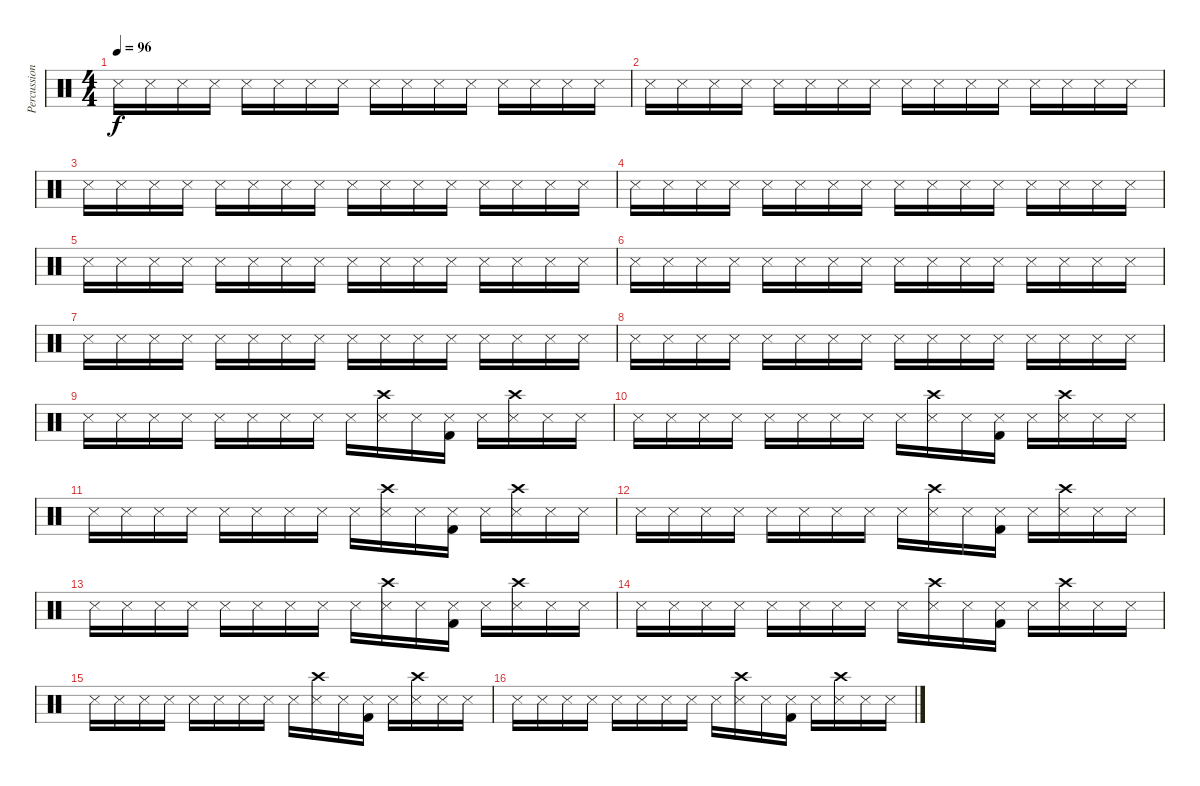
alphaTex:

\track ("Percussion 3 diff" "Percussion") {instrument percussion}
\staff {score}
\articulation defaults
\ts (4 4)
\tempo 96
\clef neutral
\ks c "Snare (side stick) 3".16{dy f} "Snare (side stick) 3".16 "Snare (side stick) 3".16 "Snare (side stick) 3".16 "Snare (side stick) 3".16 "Snare (side stick) 3".16 "Snare (side stick) 3".16 "Snare (side stick) 3".16 "Snare (side stick) 3".16 "Snare (side stick) 3".16 "Snare (side stick) 3".16 "Snare (side stick) 3".16 "Snare (side stick) 3".16 "Snare (side stick) 3".16 "Snare (side stick) 3".16 "Snare (side stick) 3".16
|
"Snare (side stick) 3".16 "Snare (side stick) 3".16 "Snare (side stick) 3".16 "Snare (side stick) 3".16 "Snare (side stick) 3".16 "Snare (side stick) 3".16 "Snare (side stick) 3".16 "Snare (side stick) 3".16 "Snare (side stick) 3".16 "Snare (side stick) 3".16 "Snare (side stick) 3".16 "Snare (side stick) 3".16 "Snare (side stick) 3".16 "Snare (side stick) 3".16 "Snare (side stick) 3".16 "Snare (side stick) 3".16 |
"Snare (side stick) 3".16 "Snare (side stick) 3".16 "Snare (side stick) 3".16 "Snare (side stick) 3".16 "Snare (side stick) 3".16 "Snare (side stick) 3".16 "Snare (side stick) 3".16 "Snare (side stick) 3".16 "Snare (side stick) 3".16 "Snare (side stick) 3".16 "Snare (side stick) 3".16 "Snare (side stick) 3".16 "Snare (side stick) 3".16 "Snare (side stick) 3".16 "Snare (side stick) 3".16 "Snare (side stick) 3".16 |
"Snare (side stick) 3".16 "Snare (side stick) 3".16 "Snare (side stick) 3".16 "Snare (side stick) 3".16 "Snare (side stick) 3".16 "Snare (side stick) 3".16 "Snare (side stick) 3".16 "Snare (side stick) 3".16 "Snare (side stick) 3".16 "Snare (side stick) 3".16 "Snare (side stick) 3".16 "Snare (side stick) 3".16 "Snare (side stick) 3".16 "Snare (side stick) 3".16 "Snare (side stick) 3".16 "Snare (side stick) 3".16 |
"Snare (side stick) 3".16 "Snare (side stick) 3".16 "Snare (side stick) 3".16 "Snare (side stick) 3".16 "Snare (side stick) 3".16 "Snare (side stick) 3".16 "Snare (side stick) 3".16 "Snare (side stick) 3".16 "Snare (side stick) 3".16 "Snare (side stick) 3".16 "Snare (side stick) 3".16 "Snare (side stick) 3".16 "Snare (side stick) 3".16 "Snare (side stick) 3".16 "Snare (side stick) 3".16 "Snare (side stick) 3".16 |
"Snare (side stick) 3".16 "Snare (side stick) 3".16 "Snare (side stick) 3".16 "Snare (side stick) 3".16 "Snare (side stick) 3".16 "Snare (side stick) 3".16 "Snare (side stick) 3".16 "Snare (side stick) 3".16 "Snare (side stick) 3".16 "Snare (side stick) 3".16 "Snare (side stick) 3".16 "Snare (side stick) 3".16 "Snare (side stick) 3".16 "Snare (side stick) 3".16 "Snare (side stick) 3".16 "Snare (side stick) 3".16 |
"Snare (side stick) 3".16 "Snare (side stick) 3".16 "Snare (side stick) 3".16 "Snare (side stick) 3".16 "Snare (side stick) 3".16 "Snare (side stick) 3".16 "Snare (side stick) 3".16 "Snare (side stick) 3".16 "Snare (side stick) 3".16 "Snare (side stick) 3".16 "Snare (side stick) 3".16 "Snare (side stick) 3".16 "Snare (side stick) 3".16 "Snare (side stick) 3".16 "Snare (side stick) 3".16 "Snare (side stick) 3".16 |
"Snare (side stick) 3".16 "Snare (side stick) 3".16 "Snare (side stick) 3".16 "Snare (side stick) 3".16 "Snare (side stick) 3".16 "Snare (side stick) 3".16 "Snare (side stick) 3".16 "Snare (side stick) 3".16 "Snare (side stick) 3".16 "Snare (side stick) 3".16 "Snare (side stick) 3".16 "Snare (side stick) 3".16 "Snare (side stick) 3".16 "Snare (side stick) 3".16 "Snare (side stick) 3".16 "Snare (side stick) 3".16 |
"Snare (side stick) 3".16 "Snare (side stick) 3".16 "Snare (side stick) 3".16 "Snare (side stick) 3".16 "Snare (side stick) 3".16 "Snare (side stick) 3".16 "Snare (side stick) 3".16 "Snare (side stick) 3".16 "Snare (side stick) 3".16 ("Snare (side stick) 3" "Crash high (hit)").16 "Snare (side stick) 3".16 ("Snare (side stick) 3" "Kick (hit) 2").16 "Snare (side stick) 3".16 ("Snare (side stick) 3" "Crash high (hit)").16 "Snare (side stick) 3".16 "Snare (side stick) 3".16 |
"Snare (side stick) 3".16 "Snare (side stick) 3".16 "Snare (side stick) 3".16 "Snare (side stick) 3".16 "Snare (side stick) 3".16 "Snare (side stick) 3".16 "Snare (side stick) 3".16 "Snare (side stick) 3".16 "Snare (side stick) 3".16 ("Snare (side stick) 3" "Crash high (hit)").16 "Snare (side stick) 3".16 ("Snare (side stick) 3" "Kick (hit) 2").16 "Snare (side stick) 3".16 ("Snare (side stick) 3" "Crash high (hit)").16 "Snare (side stick) 3".16 "Snare (side stick) 3".16 |
"Snare (side stick) 3".16 "Snare (side stick) 3".16 "Snare (side stick) 3".16 "Snare (side stick) 3".16 "Snare (side stick) 3".16 "Snare (side stick) 3".16 "Snare (side stick) 3".16 "Snare (side stick) 3".16 "Snare (side stick) 3".16 ("Snare (side stick) 3" "Crash high (hit)").16 "Snare (side stick) 3".16 ("Snare (side stick) 3" "Kick (hit) 2").16 "Snare (side stick) 3".16 ("Snare (side stick) 3" "Crash high (hit)").16 "Snare (side stick) 3".16 "Snare (side stick) 3".16 |
"Snare (side stick) 3".16 "Snare (side stick) 3".16 "Snare (side stick) 3".16 "Snare (side stick) 3".16 "Snare (side stick) 3".16 "Snare (side stick) 3".16 "Snare (side stick) 3".16 "Snare (side stick) 3".16 "Snare (side stick) 3".16 ("Snare (side stick) 3" "Crash high (hit)").16 "Snare (side stick) 3".16 ("Snare (side stick) 3" "Kick (hit) 2").16 "Snare (side stick) 3".16 ("Snare (side stick) 3" "Crash high (hit)").16 "Snare (side stick) 3".16 "Snare (side stick) 3".16 |
"Snare (side stick) 3".16 "Snare (side stick) 3".16 "Snare (side stick) 3".16 "Snare (side stick) 3".16 "Snare (side stick) 3".16 "Snare (side stick) 3".16 "Snare (side stick) 3".16 "Snare (side stick) 3".16 "Snare (side stick) 3".16 ("Snare (side stick) 3" "Crash high (hit)").16 "Snare (side stick) 3".16 ("Snare (side stick) 3" "Kick (hit) 2").16 "Snare (side stick) 3".16 ("Snare (side stick) 3" "Crash high (hit)").16 "Snare (side stick) 3".16 "Snare (side stick) 3".16 |
"Snare (side stick) 3".16 "Snare (side stick) 3".16 "Snare (side stick) 3".16 "Snare (side stick) 3".16 "Snare (side stick) 3".16 "Snare (side stick) 3".16 "Snare (side stick) 3".16 "Snare (side stick) 3".16 "Snare (side stick) 3".16 ("Snare (side stick) 3" "Crash high (hit)").16 "Snare (side stick) 3".16 ("Snare (side stick) 3" "Kick (hit) 2").16 "Snare (side stick) 3".16 ("Snare (side stick) 3" "Crash high (hit)").16 "Snare (side stick) 3".16 "Snare (side stick) 3".16 |
"Snare (side stick) 3".16 "Snare (side stick) 3".16 "Snare (side stick) 3".16 "Snare (side stick) 3".16 "Snare (side stick) 3".16 "Snare (side stick) 3".16 "Snare (side stick) 3".16 "Snare (side stick) 3".16 "Snare (side stick) 3".16 ("Snare (side stick) 3" "Crash high (hit)").16 "Snare (side stick) 3".16 ("Snare (side stick) 3" "Kick (hit) 2").16 "Snare (side stick) 3".16 ("Snare (side stick) 3" "Crash high (hit)").16 "Snare (side stick) 3".16 "Snare (side stick) 3".16 |
"Snare (side stick) 3".16 "Snare (side stick) 3".16 "Snare (side stick) 3".16 "Snare (side stick) 3".16 "Snare (side stick) 3".16 "Snare (side stick) 3".16 "Snare (side stick) 3".16 "Snare (side stick) 3".16 "Snare (side stick) 3".16 ("Snare (side stick) 3" "Crash high (hit)").16 "Snare (side stick) 3".16 ("Snare (side stick) 3" "Kick (hit) 2").16 "Snare (side stick) 3".16 ("Snare (side stick) 3" "Crash high (hit)").16 "Snare (side stick) 3".16 "Snare (side stick) 3".16
